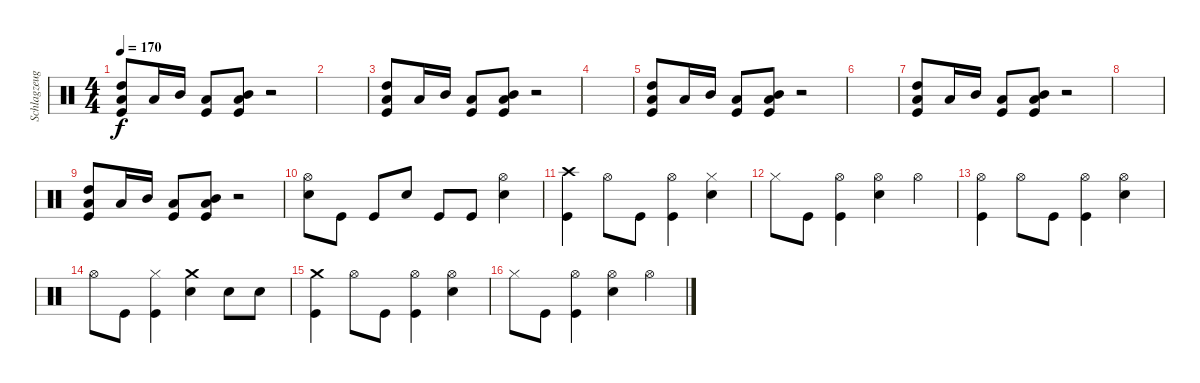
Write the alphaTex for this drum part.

\track ("Schlagzeug" "Schlagzeug") {instrument percussion}
\staff {score}
\articulation defaults
\ts (4 4)
\tempo 170
\clef neutral
\ks c
("High Tom (hit)" "Low Tom (hit)" "Kick (hit)").8{dy f} "Low Tom (hit)".16 "Mid Tom (hit)".16 ("Low Tom (hit)" "Kick (hit)").8 ("Mid Tom (hit)" "Low Tom (hit)" "Kick (hit)").8 r.2 |
|
("High Tom (hit)" "Low Tom (hit)" "Kick (hit)").8 "Low Tom (hit)".16 "Mid Tom (hit)".16 ("Low Tom (hit)" "Kick (hit)").8 ("Mid Tom (hit)" "Low Tom (hit)" "Kick (hit)").8 r.2 |
|
("High Tom (hit)" "Low Tom (hit)" "Kick (hit)").8 "Low Tom (hit)".16 "Mid Tom (hit)".16 ("Low Tom (hit)" "Kick (hit)").8 ("Mid Tom (hit)" "Low Tom (hit)" "Kick (hit)").8 r.2 |
|
("High Tom (hit)" "Low Tom (hit)" "Kick (hit)").8 "Low Tom (hit)".16 "Mid Tom (hit)".16 ("Low Tom (hit)" "Kick (hit)").8 ("Mid Tom (hit)" "Low Tom (hit)" "Kick (hit)").8 r.2 |
|
("High Tom (hit)" "Low Tom (hit)" "Kick (hit)").8 "Low Tom (hit)".16 "Mid Tom (hit)".16 ("Low Tom (hit)" "Kick (hit)").8 ("Mid Tom (hit)" "Low Tom (hit)" "Kick (hit)").8 r.2 |
("Hi-Hat (open)" "Electric Snare (hit)").8 "Kick (hit)".8 "Kick (hit)".8 "Electric Snare (hit)".8 "Kick (hit)".8 "Kick (hit)".8 ("Hi-Hat (open)" "Electric Snare (hit)").4 |
("Crash high (hit)" "Kick (hit)").4 "Hi-Hat (open)".8 "Kick (hit)".8 ("Hi-Hat (open)" "Kick (hit)").4 ("Hi-Hat (closed)" "Electric Snare (hit)").4 |
"Hi-Hat (closed)".8 "Kick (hit)".8 ("Hi-Hat (open)" "Kick (hit)").4 ("Hi-Hat (open)" "Electric Snare (hit)").4 "Hi-Hat (open)".4 |
("Hi-Hat (open)" "Kick (hit)").4 "Hi-Hat (open)".8 "Kick (hit)".8 ("Hi-Hat (open)" "Kick (hit)").4 ("Hi-Hat (open)" "Electric Snare (hit)").4 |
"Hi-Hat (open)".8 "Kick (hit)".8 ("Hi-Hat (closed)" "Kick (hit)").4 ("Crash medium (hit)" "Electric Snare (hit)").4 "Electric Snare (hit)".8 "Electric Snare (hit)".8 |
("Crash medium (hit)" "Kick (hit)").4 "Hi-Hat (open)".8 "Kick (hit)".8 ("Hi-Hat (open)" "Kick (hit)").4 ("Hi-Hat (open)" "Electric Snare (hit)").4 |
"Hi-Hat (closed)".8 "Kick (hit)".8 ("Hi-Hat (open)" "Kick (hit)").4 ("Hi-Hat (open)" "Electric Snare (hit)").4 "Hi-Hat (open)".4
